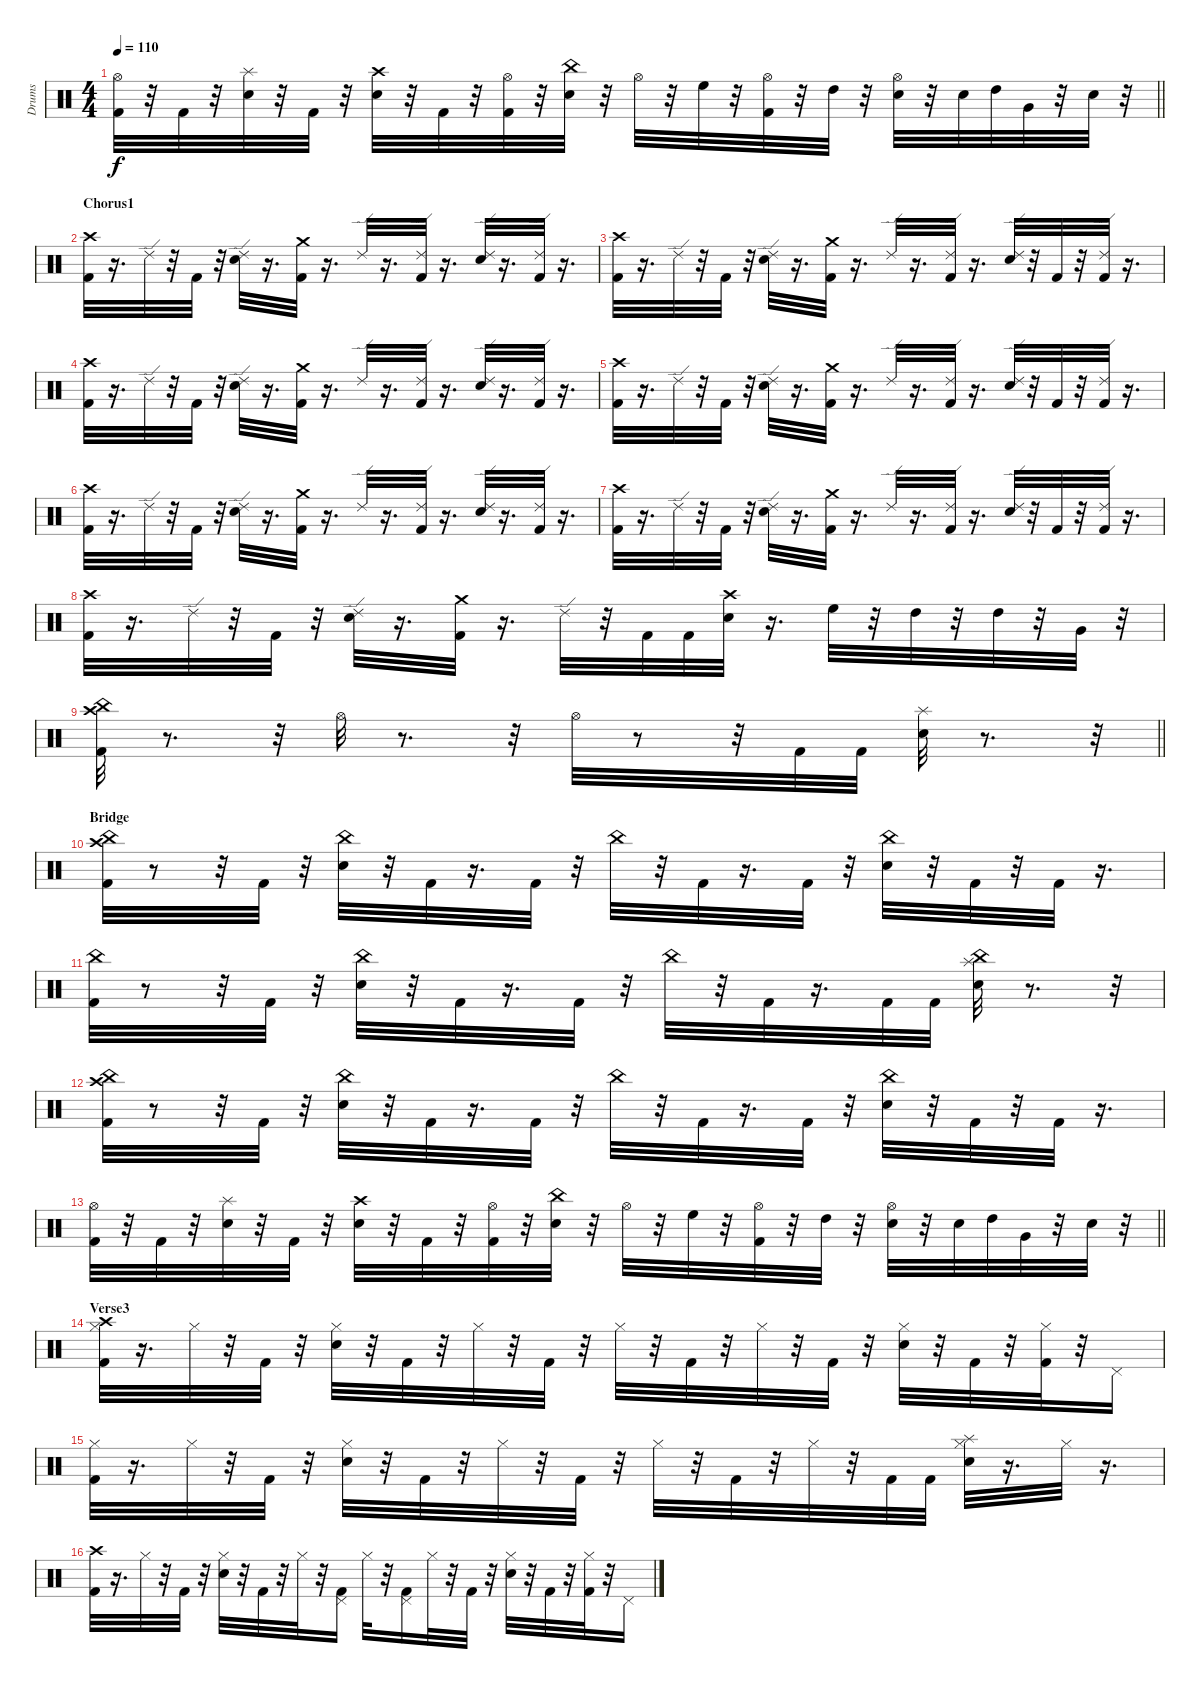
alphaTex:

\track ("Drums" "Drums") {instrument percussion}
\staff {score}
\articulation defaults
\ts (4 4)
\tempo 110
\clef neutral
\barLineRight lightlight
\ks c
("Kick (hit) 2" "Hi-Hat (open)").32{dy f} r.32 "Kick (hit) 2".32 r.32 ("Snare (hit) 2" "Splash (hit)").32 r.32 "Kick (hit) 2".32 r.32 ("Snare (hit) 2" "Crash high (hit)").32 r.32 "Kick (hit) 2".32 r.32 ("Kick (hit) 2" "Hi-Hat (open)").32 r.32 ("Snare (hit) 2" "China (hit)").32 r.32 "Hi-Hat (open)".32 r.32 "High Floor Tom (hit)".32 r.32 ("Kick (hit) 2" "Hi-Hat (open)").32 r.32 "High Tom (hit)".32 r.32 ("Snare (hit) 2" "Hi-Hat (open)").32 r.32 "Snare (hit) 2".32 "High Tom (hit)".32 "Very Low Tom (hit)".32 r.32 "Snare (hit) 2".32 r.32 |
\section ("" "Chorus1")
("Kick (hit) 2" "Crash high (hit)").32 r.16{d} "Ride (edge) 2".32 r.32 "Kick (hit) 2".32 r.32 ("Snare (hit) 2" "Ride (edge) 2").32 r.16{d} ("Kick (hit) 2" "Crash medium (hit)").32 r.16{d} "Ride (edge) 2".32 r.16{d} ("Kick (hit) 2" "Ride (edge) 2").32 r.16{d} ("Snare (hit) 2" "Ride (edge) 2").32 r.16{d} ("Kick (hit) 2" "Ride (edge) 2").32 r.16{d} |
("Kick (hit) 2" "Crash high (hit)").32 r.16{d} "Ride (edge) 2".32 r.32 "Kick (hit) 2".32 r.32 ("Snare (hit) 2" "Ride (edge) 2").32 r.16{d} ("Kick (hit) 2" "Crash medium (hit)").32 r.16{d} "Ride (edge) 2".32 r.16{d} ("Kick (hit) 2" "Ride (edge) 2").32 r.16{d} ("Snare (hit) 2" "Ride (edge) 2").32 r.32 "Kick (hit) 2".32 r.32 ("Kick (hit) 2" "Ride (edge) 2").32 r.16{d} |
("Kick (hit) 2" "Crash high (hit)").32 r.16{d} "Ride (edge) 2".32 r.32 "Kick (hit) 2".32 r.32 ("Snare (hit) 2" "Ride (edge) 2").32 r.16{d} ("Kick (hit) 2" "Crash medium (hit)").32 r.16{d} "Ride (edge) 2".32 r.16{d} ("Kick (hit) 2" "Ride (edge) 2").32 r.16{d} ("Snare (hit) 2" "Ride (edge) 2").32 r.16{d} ("Kick (hit) 2" "Ride (edge) 2").32 r.16{d} |
("Kick (hit) 2" "Crash high (hit)").32 r.16{d} "Ride (edge) 2".32 r.32 "Kick (hit) 2".32 r.32 ("Snare (hit) 2" "Ride (edge) 2").32 r.16{d} ("Kick (hit) 2" "Crash medium (hit)").32 r.16{d} "Ride (edge) 2".32 r.16{d} ("Kick (hit) 2" "Ride (edge) 2").32 r.16{d} ("Snare (hit) 2" "Ride (edge) 2").32 r.32 "Kick (hit) 2".32 r.32 ("Kick (hit) 2" "Ride (edge) 2").32 r.16{d} |
("Kick (hit) 2" "Crash high (hit)").32 r.16{d} "Ride (edge) 2".32 r.32 "Kick (hit) 2".32 r.32 ("Snare (hit) 2" "Ride (edge) 2").32 r.16{d} ("Kick (hit) 2" "Crash medium (hit)").32 r.16{d} "Ride (edge) 2".32 r.16{d} ("Kick (hit) 2" "Ride (edge) 2").32 r.16{d} ("Snare (hit) 2" "Ride (edge) 2").32 r.16{d} ("Kick (hit) 2" "Ride (edge) 2").32 r.16{d} |
("Kick (hit) 2" "Crash high (hit)").32 r.16{d} "Ride (edge) 2".32 r.32 "Kick (hit) 2".32 r.32 ("Snare (hit) 2" "Ride (edge) 2").32 r.16{d} ("Kick (hit) 2" "Crash medium (hit)").32 r.16{d} "Ride (edge) 2".32 r.16{d} ("Kick (hit) 2" "Ride (edge) 2").32 r.16{d} ("Snare (hit) 2" "Ride (edge) 2").32 r.32 "Kick (hit) 2".32 r.32 ("Kick (hit) 2" "Ride (edge) 2").32 r.16{d} |
("Kick (hit) 2" "Crash high (hit)").32 r.16{d} "Ride (edge) 2".32 r.32 "Kick (hit) 2".32 r.32 ("Snare (hit) 2" "Ride (edge) 2").32 r.16{d} ("Kick (hit) 2" "Crash medium (hit)").32 r.16{d} "Ride (edge) 2".32 r.32 "Kick (hit) 2".32 "Kick (hit) 2".32 ("Snare (hit) 2" "Crash high (hit)").32 r.16{d} "High Floor Tom (hit)".32 r.32 "High Tom (hit)".32 r.32 "High Tom (hit)".32 r.32 "Very Low Tom (hit)".32 r.32 |
\barLineRight lightlight
("Kick (hit) 2" "Crash high (hit)" "China (hit)").32 r.8{d} r.32 "Hi-Hat (open)".32 r.8{d} r.32 "Hi-Hat (open)".32 r.8 r.32 "Kick (hit) 2".32 "Kick (hit) 2".32 ("Snare (hit) 2" "Splash (hit)").32 r.8{d} r.32 |
\section ("" "Bridge")
("Kick (hit) 2" "Crash high (hit)" "China (hit)").32 r.8 r.32 "Kick (hit) 2".32 r.32 ("Snare (hit) 2" "China (hit)").32 r.32 "Kick (hit) 2".32 r.16{d} "Kick (hit) 2".32 r.32 "China (hit)".32 r.32 "Kick (hit) 2".32 r.16{d} "Kick (hit) 2".32 r.32 ("Snare (hit) 2" "China (hit)").32 r.32 "Kick (hit) 2".32 r.32 "Kick (hit) 2".32 r.16{d} |
("Kick (hit) 2" "China (hit)").32 r.8 r.32 "Kick (hit) 2".32 r.32 ("Snare (hit) 2" "China (hit)").32 r.32 "Kick (hit) 2".32 r.16{d} "Kick (hit) 2".32 r.32 "China (hit)".32 r.32 "Kick (hit) 2".32 r.16{d} "Kick (hit) 2".32 "Kick (hit) 2".32 ("Snare (hit) 2" "China (hit)" "Splash (hit)").32 r.8{d} r.32 |
("Kick (hit) 2" "Crash high (hit)" "China (hit)").32 r.8 r.32 "Kick (hit) 2".32 r.32 ("Snare (hit) 2" "China (hit)").32 r.32 "Kick (hit) 2".32 r.16{d} "Kick (hit) 2".32 r.32 "China (hit)".32 r.32 "Kick (hit) 2".32 r.16{d} "Kick (hit) 2".32 r.32 ("Snare (hit) 2" "China (hit)").32 r.32 "Kick (hit) 2".32 r.32 "Kick (hit) 2".32 r.16{d} |
\barLineRight lightlight
("Kick (hit) 2" "Hi-Hat (open)").32 r.32 "Kick (hit) 2".32 r.32 ("Snare (hit) 2" "Splash (hit)").32 r.32 "Kick (hit) 2".32 r.32 ("Snare (hit) 2" "Crash high (hit)").32 r.32 "Kick (hit) 2".32 r.32 ("Kick (hit) 2" "Hi-Hat (open)").32 r.32 ("Snare (hit) 2" "China (hit)").32 r.32 "Hi-Hat (open)".32 r.32 "High Floor Tom (hit)".32 r.32 ("Kick (hit) 2" "Hi-Hat (open)").32 r.32 "High Tom (hit)".32 r.32 ("Snare (hit) 2" "Hi-Hat (open)").32 r.32 "Snare (hit) 2".32 "High Tom (hit)".32 "Very Low Tom (hit)".32 r.32 "Snare (hit) 2".32 r.32 |
\section ("" "Verse3")
("Kick (hit) 2" "Hi-Hat (closed)" "Crash high (hit)").32 r.16{d} "Hi-Hat (closed)".32 r.32 "Kick (hit) 2".32 r.32 ("Snare (hit) 2" "Hi-Hat (closed)").32 r.32 "Kick (hit) 2".32 r.32 "Hi-Hat (closed)".32 r.32 "Kick (hit) 2".32 r.32 "Hi-Hat (closed)".32 r.32 "Kick (hit) 2".32 r.32 "Hi-Hat (closed)".32 r.32 "Kick (hit) 2".32 r.32 ("Snare (hit) 2" "Hi-Hat (closed)").32 r.32 "Kick (hit) 2".32 r.32 ("Kick (hit) 2" "Hi-Hat (closed)").32 r.32 "Pedal Hi-Hat (hit)".16 |
("Kick (hit) 2" "Hi-Hat (closed)").32 r.16{d} "Hi-Hat (closed)".32 r.32 "Kick (hit) 2".32 r.32 ("Snare (hit) 2" "Hi-Hat (closed)").32 r.32 "Kick (hit) 2".32 r.32 "Hi-Hat (closed)".32 r.32 "Kick (hit) 2".32 r.32 "Hi-Hat (closed)".32 r.32 "Kick (hit) 2".32 r.32 "Hi-Hat (closed)".32 r.32 "Kick (hit) 2".32 "Kick (hit) 2".32 ("Snare (hit) 2" "Hi-Hat (closed)" "Splash (hit)").32 r.16{d} "Hi-Hat (closed)".32 r.16{d} |
("Kick (hit) 2" "Crash high (hit)").32 r.16{d} "Hi-Hat (closed)".32 r.32 "Kick (hit) 2".32 r.32 ("Snare (hit) 2" "Hi-Hat (closed)").32 r.32 "Kick (hit) 2".32 r.32 "Hi-Hat (closed)".32 r.32 ("Kick (hit) 2" "Pedal Hi-Hat (hit)").16 "Hi-Hat (closed)".32 r.32 ("Kick (hit) 2" "Pedal Hi-Hat (hit)").16 "Hi-Hat (closed)".32 r.32 "Kick (hit) 2".32 r.32 ("Snare (hit) 2" "Hi-Hat (closed)").32 r.32 "Kick (hit) 2".32 r.32 ("Kick (hit) 2" "Hi-Hat (closed)").32 r.32 "Pedal Hi-Hat (hit)".16
